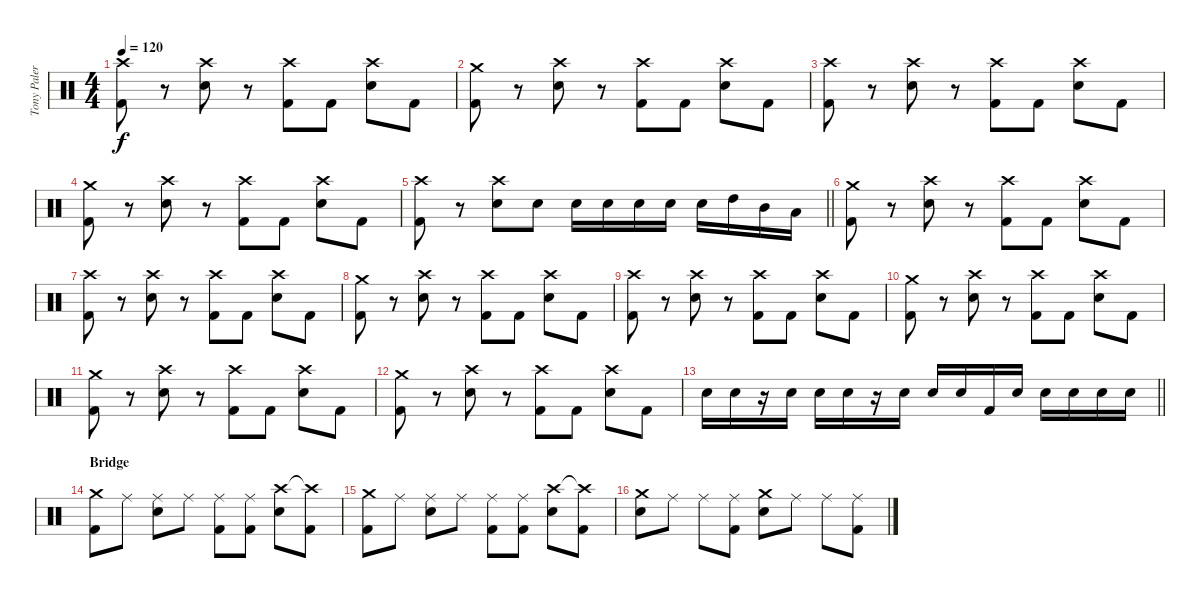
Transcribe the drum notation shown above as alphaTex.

\track ("Tony Palermo " "Tony Paler") {instrument percussion}
\staff {score}
\articulation defaults
\ts (4 4)
\tempo 120
\clef neutral
\ks c
("Crash high (hit)" "Kick (hit) 2").8{dy f} r.8 ("Crash high (hit)" "Snare (hit) 2").8 r.8 ("Crash high (hit)" "Kick (hit) 2").8 "Kick (hit) 2".8 ("Crash high (hit)" "Snare (hit) 2").8 "Kick (hit) 2".8 |
("Crash medium (hit)" "Kick (hit) 2").8 r.8 ("Crash high (hit)" "Snare (hit) 2").8 r.8 ("Crash high (hit)" "Kick (hit) 2").8 "Kick (hit) 2".8 ("Crash high (hit)" "Snare (hit) 2").8 "Kick (hit) 2".8 |
("Crash high (hit)" "Kick (hit) 2").8 r.8 ("Crash high (hit)" "Snare (hit) 2").8 r.8 ("Crash high (hit)" "Kick (hit) 2").8 "Kick (hit) 2".8 ("Crash high (hit)" "Snare (hit) 2").8 "Kick (hit) 2".8 |
("Crash medium (hit)" "Kick (hit) 2").8 r.8 ("Crash high (hit)" "Snare (hit) 2").8 r.8 ("Crash high (hit)" "Kick (hit) 2").8 "Kick (hit) 2".8 ("Crash high (hit)" "Snare (hit) 2").8 "Kick (hit) 2".8 |
\barLineRight lightlight
("Crash high (hit)" "Kick (hit) 2").8 r.8 ("Crash high (hit)" "Snare (hit) 2").8 "Snare (hit) 2".8 "Snare (hit) 2".16 "Snare (hit) 2".16 "Snare (hit) 2".16 "Snare (hit) 2".16 "Snare (hit) 2".16 "High Tom (hit)".16 "Mid Tom (hit)".16 "Low Tom (hit)".16 |
("Crash medium (hit)" "Kick (hit) 2").8 r.8 ("Crash high (hit)" "Snare (hit) 2").8 r.8 ("Crash high (hit)" "Kick (hit) 2").8 "Kick (hit) 2".8 ("Crash high (hit)" "Snare (hit) 2").8 "Kick (hit) 2".8 |
("Crash high (hit)" "Kick (hit) 2").8 r.8 ("Crash high (hit)" "Snare (hit) 2").8 r.8 ("Crash high (hit)" "Kick (hit) 2").8 "Kick (hit) 2".8 ("Crash high (hit)" "Snare (hit) 2").8 "Kick (hit) 2".8 |
("Crash medium (hit)" "Kick (hit) 2").8 r.8 ("Crash high (hit)" "Snare (hit) 2").8 r.8 ("Crash high (hit)" "Kick (hit) 2").8 "Kick (hit) 2".8 ("Crash high (hit)" "Snare (hit) 2").8 "Kick (hit) 2".8 |
("Crash high (hit)" "Kick (hit) 2").8 r.8 ("Crash high (hit)" "Snare (hit) 2").8 r.8 ("Crash high (hit)" "Kick (hit) 2").8 "Kick (hit) 2".8 ("Crash high (hit)" "Snare (hit) 2").8 "Kick (hit) 2".8 |
("Crash medium (hit)" "Kick (hit) 2").8 r.8 ("Crash high (hit)" "Snare (hit) 2").8 r.8 ("Crash high (hit)" "Kick (hit) 2").8 "Kick (hit) 2".8 ("Crash high (hit)" "Snare (hit) 2").8 "Kick (hit) 2".8 |
("Crash medium (hit)" "Kick (hit) 2").8 r.8 ("Crash high (hit)" "Snare (hit) 2").8 r.8 ("Crash high (hit)" "Kick (hit) 2").8 "Kick (hit) 2".8 ("Crash high (hit)" "Snare (hit) 2").8 "Kick (hit) 2".8 |
("Crash medium (hit)" "Kick (hit) 2").8 r.8 ("Crash high (hit)" "Snare (hit) 2").8 r.8 ("Crash high (hit)" "Kick (hit) 2").8 "Kick (hit) 2".8 ("Crash high (hit)" "Snare (hit) 2").8 "Kick (hit) 2".8 |
\barLineRight lightlight "Snare (hit) 2".16 "Snare (hit) 2".16
r.16 "Snare (hit) 2".16 "Snare (hit) 2".16 "Snare (hit) 2".16 r.16 "Snare (hit) 2".16 "Snare (hit) 2".16 "Snare (hit) 2".16 "Kick (hit) 2".16 "Snare (hit) 2".16 "Snare (hit) 2".16 "Snare (hit) 2".16 "Snare (hit) 2".16 "Snare (hit) 2".16 |
\section ("" "Bridge")
("Crash medium (hit)" "Kick (hit) 2").8 "Ride (middle)".8 ("Ride (middle)" "Snare (hit) 2").8 "Ride (middle)".8 ("Ride (middle)" "Kick (hit) 2").8 ("Ride (middle)" "Kick (hit) 2").8 ("Crash high (hit)" "Snare (hit) 2").8 ("Crash high (hit)"{t} "Kick (hit) 2").8 |
("Crash medium (hit)" "Kick (hit) 2").8 "Ride (middle)".8 ("Ride (middle)" "Snare (hit) 2").8 "Ride (middle)".8 ("Ride (middle)" "Kick (hit) 2").8 ("Ride (middle)" "Kick (hit) 2").8 ("Crash high (hit)" "Snare (hit) 2").8 ("Crash high (hit)"{t} "Kick (hit) 2").8 |
("Crash medium (hit)" "Snare (hit) 2").8 "Ride (middle)".8 "Ride (middle)".8 ("Ride (middle)" "Kick (hit) 2").8 ("Crash medium (hit)" "Snare (hit) 2").8 "Ride (middle)".8 "Ride (middle)".8 ("Ride (middle)" "Kick (hit) 2").8
